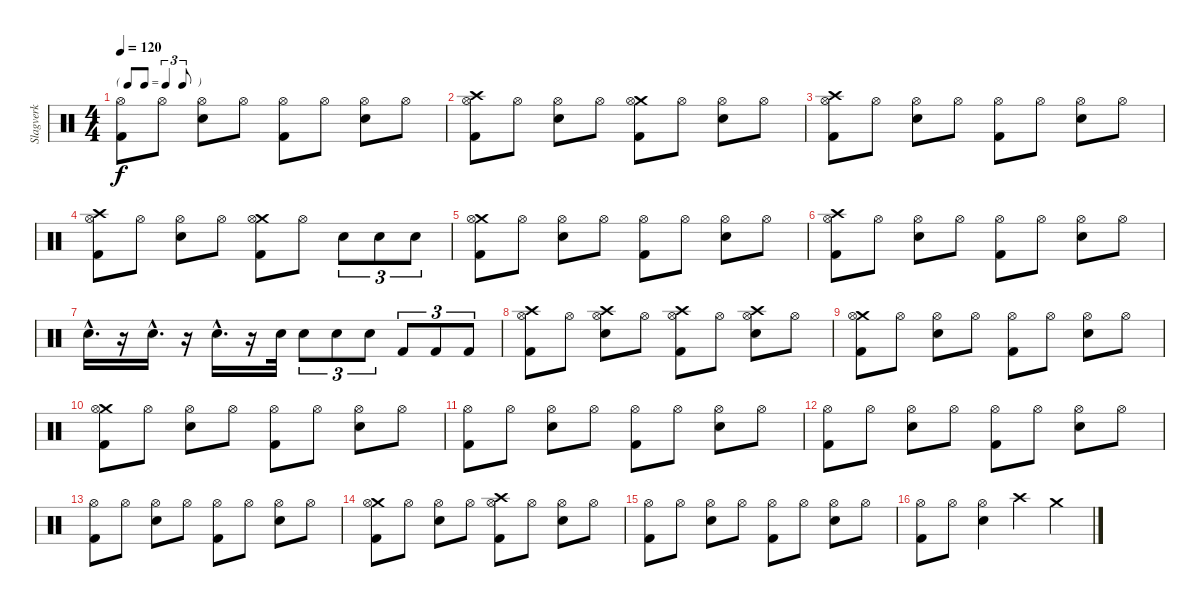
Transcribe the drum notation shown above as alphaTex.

\track ("Slagverk" "Slagverk") {instrument percussion}
\staff {score}
\articulation defaults
\ts (4 4)
\tf triplet8th
\tempo 120
\clef neutral
\ks c
("Hi-Hat (open)" "Kick (hit) 2").8{dy f} "Hi-Hat (open)".8 ("Electric Snare (hit)" "Hi-Hat (open)").8 "Hi-Hat (open)".8 ("Hi-Hat (open)" "Kick (hit) 2").8 "Hi-Hat (open)".8 ("Electric Snare (hit)" "Hi-Hat (open)").8 "Hi-Hat (open)".8 |
("Crash high (hit)" "Hi-Hat (open)" "Kick (hit) 2").8 "Hi-Hat (open)".8 ("Electric Snare (hit)" "Hi-Hat (open)").8 "Hi-Hat (open)".8 ("Crash medium (hit)" "Hi-Hat (open)" "Kick (hit) 2").8 "Hi-Hat (open)".8 ("Electric Snare (hit)" "Hi-Hat (open)").8 "Hi-Hat (open)".8 |
("Crash high (hit)" "Hi-Hat (open)" "Kick (hit) 2").8 "Hi-Hat (open)".8 ("Electric Snare (hit)" "Hi-Hat (open)").8 "Hi-Hat (open)".8 ("Hi-Hat (open)" "Kick (hit) 2").8 "Hi-Hat (open)".8 ("Electric Snare (hit)" "Hi-Hat (open)").8 "Hi-Hat (open)".8 |
("Crash high (hit)" "Hi-Hat (open)" "Kick (hit) 2").8 "Hi-Hat (open)".8 ("Electric Snare (hit)" "Hi-Hat (open)").8 "Hi-Hat (open)".8 ("Crash medium (hit)" "Hi-Hat (open)" "Kick (hit) 2").8 "Hi-Hat (open)".8 "Electric Snare (hit)".8{tu (3 2)} "Electric Snare (hit)".8{tu (3 2)} "Electric Snare (hit)".8{tu (3 2)} |
("Crash medium (hit)" "Hi-Hat (open)" "Kick (hit) 2").8 "Hi-Hat (open)".8 ("Electric Snare (hit)" "Hi-Hat (open)").8 "Hi-Hat (open)".8 ("Hi-Hat (open)" "Kick (hit) 2").8 "Hi-Hat (open)".8 ("Electric Snare (hit)" "Hi-Hat (open)").8 "Hi-Hat (open)".8 |
("Crash high (hit)" "Hi-Hat (open)" "Kick (hit) 2").8 "Hi-Hat (open)".8 ("Electric Snare (hit)" "Hi-Hat (open)").8 "Hi-Hat (open)".8 ("Hi-Hat (open)" "Kick (hit) 2").8 "Hi-Hat (open)".8 ("Electric Snare (hit)" "Hi-Hat (open)").8 "Hi-Hat (open)".8 |
"Electric Snare (hit)"{hac}.16{d} r.16 "Electric Snare (hit)"{hac}.16{d} r.16 "Electric Snare (hit)"{hac}.16{d} r.16 "Electric Snare (hit)".32 "Electric Snare (hit)".8{tu (3 2)} "Electric Snare (hit)".8{tu (3 2)} "Electric Snare (hit)".8{tu (3 2)} "Kick (hit) 2".8{tu (3 2)} "Kick (hit) 2".8{tu (3 2)} "Kick (hit) 2".8{tu (3 2)} |
("Crash high (hit)" "Hi-Hat (open)" "Kick (hit) 2").8 "Hi-Hat (open)".8 ("Crash high (hit)" "Electric Snare (hit)" "Hi-Hat (open)").8 "Hi-Hat (open)".8 ("Crash high (hit)" "Hi-Hat (open)" "Kick (hit) 2").8 "Hi-Hat (open)".8 ("Crash high (hit)" "Electric Snare (hit)" "Hi-Hat (open)").8 "Hi-Hat (open)".8 |
("Crash medium (hit)" "Hi-Hat (open)" "Kick (hit) 2").8 "Hi-Hat (open)".8 ("Electric Snare (hit)" "Hi-Hat (open)").8 "Hi-Hat (open)".8 ("Hi-Hat (open)" "Kick (hit) 2").8 "Hi-Hat (open)".8 ("Electric Snare (hit)" "Hi-Hat (open)").8 "Hi-Hat (open)".8 |
("Crash medium (hit)" "Hi-Hat (open)" "Kick (hit) 2").8 "Hi-Hat (open)".8 ("Electric Snare (hit)" "Hi-Hat (open)").8 "Hi-Hat (open)".8 ("Hi-Hat (open)" "Kick (hit) 2").8 "Hi-Hat (open)".8 ("Electric Snare (hit)" "Hi-Hat (open)").8 "Hi-Hat (open)".8 |
("Hi-Hat (open)" "Kick (hit) 2").8 "Hi-Hat (open)".8 ("Electric Snare (hit)" "Hi-Hat (open)").8 "Hi-Hat (open)".8 ("Hi-Hat (open)" "Kick (hit) 2").8 "Hi-Hat (open)".8 ("Electric Snare (hit)" "Hi-Hat (open)").8 "Hi-Hat (open)".8 |
("Hi-Hat (open)" "Kick (hit) 2").8 "Hi-Hat (open)".8 ("Electric Snare (hit)" "Hi-Hat (open)").8 "Hi-Hat (open)".8 ("Hi-Hat (open)" "Kick (hit) 2").8 "Hi-Hat (open)".8 ("Electric Snare (hit)" "Hi-Hat (open)").8 "Hi-Hat (open)".8 |
("Hi-Hat (open)" "Kick (hit) 2").8 "Hi-Hat (open)".8 ("Electric Snare (hit)" "Hi-Hat (open)").8 "Hi-Hat (open)".8 ("Hi-Hat (open)" "Kick (hit) 2").8 "Hi-Hat (open)".8 ("Electric Snare (hit)" "Hi-Hat (open)").8 "Hi-Hat (open)".8 |
("Crash medium (hit)" "Hi-Hat (open)" "Kick (hit) 2").8 "Hi-Hat (open)".8 ("Electric Snare (hit)" "Hi-Hat (open)").8 "Hi-Hat (open)".8 ("Crash high (hit)" "Hi-Hat (open)" "Kick (hit) 2").8 "Hi-Hat (open)".8 ("Electric Snare (hit)" "Hi-Hat (open)").8 "Hi-Hat (open)".8 |
("Hi-Hat (open)" "Kick (hit) 2").8 "Hi-Hat (open)".8 ("Electric Snare (hit)" "Hi-Hat (open)").8 "Hi-Hat (open)".8 ("Hi-Hat (open)" "Kick (hit) 2").8 "Hi-Hat (open)".8 ("Electric Snare (hit)" "Hi-Hat (open)").8 "Hi-Hat (open)".8 |
("Hi-Hat (open)" "Kick (hit) 2").8 "Hi-Hat (open)".8 ("Electric Snare (hit)" "Hi-Hat (open)").4 "Crash high (hit)".4 "Crash medium (hit)".4
